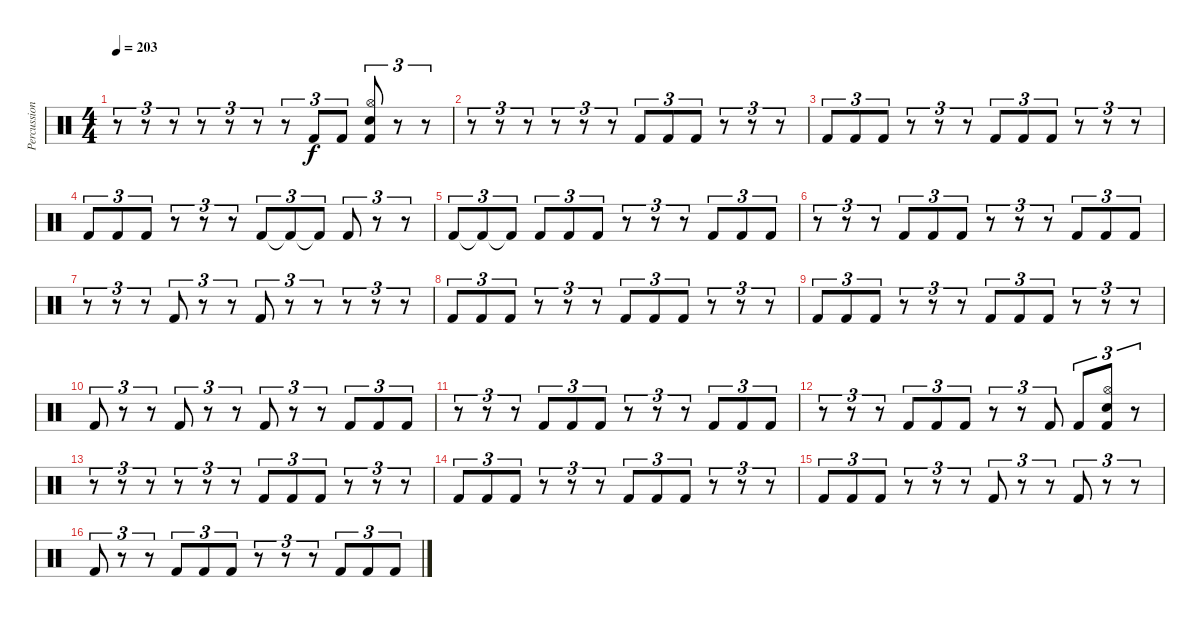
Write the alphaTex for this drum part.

\track ("Percussion" "Percussion") {instrument percussion}
\staff {score}
\articulation defaults
\ts (4 4)
\tempo 203
\clef neutral
\ks c
r.8{tu (3 2) dy f} r.8{tu (3 2)} r.8{tu (3 2)} r.8{tu (3 2)} r.8{tu (3 2)} r.8{tu (3 2)} r.8{tu (3 2)} "Kick (hit) 2".8{tu (3 2)} "Kick (hit) 2".8{tu (3 2)} ("Hi-Hat (open)" "Snare (hit) 2" "Kick (hit) 2").8{tu (3 2)} r.8{tu (3 2)} r.8{tu (3 2)} |
r.8{tu (3 2)} r.8{tu (3 2)} r.8{tu (3 2)} r.8{tu (3 2)} r.8{tu (3 2)} r.8{tu (3 2)} "Kick (hit) 2".8{tu (3 2)} "Kick (hit) 2".8{tu (3 2)} "Kick (hit) 2".8{tu (3 2)} r.8{tu (3 2)} r.8{tu (3 2)} r.8{tu (3 2)} |
"Kick (hit) 2".8{tu (3 2)} "Kick (hit) 2".8{tu (3 2)} "Kick (hit) 2".8{tu (3 2)} r.8{tu (3 2)} r.8{tu (3 2)} r.8{tu (3 2)} "Kick (hit) 2".8{tu (3 2)} "Kick (hit) 2".8{tu (3 2)} "Kick (hit) 2".8{tu (3 2)} r.8{tu (3 2)} r.8{tu (3 2)} r.8{tu (3 2)} |
"Kick (hit) 2".8{tu (3 2)} "Kick (hit) 2".8{tu (3 2)} "Kick (hit) 2".8{tu (3 2)} r.8{tu (3 2)} r.8{tu (3 2)} r.8{tu (3 2)} "Kick (hit) 2".8{tu (3 2)} "Kick (hit) 2"{t}.8{tu (3 2)} "Kick (hit) 2"{t}.8{tu (3 2)} "Kick (hit) 2".8{tu (3 2)} r.8{tu (3 2)} r.8{tu (3 2)} |
"Kick (hit) 2".8{tu (3 2)} "Kick (hit) 2"{t}.8{tu (3 2)} "Kick (hit) 2"{t}.8{tu (3 2)} "Kick (hit) 2".8{tu (3 2)} "Kick (hit) 2".8{tu (3 2)} "Kick (hit) 2".8{tu (3 2)} r.8{tu (3 2)} r.8{tu (3 2)} r.8{tu (3 2)} "Kick (hit) 2".8{tu (3 2)} "Kick (hit) 2".8{tu (3 2)} "Kick (hit) 2".8{tu (3 2)} |
r.8{tu (3 2)} r.8{tu (3 2)} r.8{tu (3 2)} "Kick (hit) 2".8{tu (3 2)} "Kick (hit) 2".8{tu (3 2)} "Kick (hit) 2".8{tu (3 2)} r.8{tu (3 2)} r.8{tu (3 2)} r.8{tu (3 2)} "Kick (hit) 2".8{tu (3 2)} "Kick (hit) 2".8{tu (3 2)} "Kick (hit) 2".8{tu (3 2)} |
r.8{tu (3 2)} r.8{tu (3 2)} r.8{tu (3 2)} "Kick (hit) 2".8{tu (3 2)} r.8{tu (3 2)} r.8{tu (3 2)} "Kick (hit) 2".8{tu (3 2)} r.8{tu (3 2)} r.8{tu (3 2)} r.8{tu (3 2)} r.8{tu (3 2)} r.8{tu (3 2)} |
"Kick (hit) 2".8{tu (3 2)} "Kick (hit) 2".8{tu (3 2)} "Kick (hit) 2".8{tu (3 2)} r.8{tu (3 2)} r.8{tu (3 2)} r.8{tu (3 2)} "Kick (hit) 2".8{tu (3 2)} "Kick (hit) 2".8{tu (3 2)} "Kick (hit) 2".8{tu (3 2)} r.8{tu (3 2)} r.8{tu (3 2)} r.8{tu (3 2)} |
"Kick (hit) 2".8{tu (3 2)} "Kick (hit) 2".8{tu (3 2)} "Kick (hit) 2".8{tu (3 2)} r.8{tu (3 2)} r.8{tu (3 2)} r.8{tu (3 2)} "Kick (hit) 2".8{tu (3 2)} "Kick (hit) 2".8{tu (3 2)} "Kick (hit) 2".8{tu (3 2)} r.8{tu (3 2)} r.8{tu (3 2)} r.8{tu (3 2)} |
"Kick (hit) 2".8{tu (3 2)} r.8{tu (3 2)} r.8{tu (3 2)} "Kick (hit) 2".8{tu (3 2)} r.8{tu (3 2)} r.8{tu (3 2)} "Kick (hit) 2".8{tu (3 2)} r.8{tu (3 2)} r.8{tu (3 2)} "Kick (hit) 2".8{tu (3 2)} "Kick (hit) 2".8{tu (3 2)} "Kick (hit) 2".8{tu (3 2)} |
r.8{tu (3 2)} r.8{tu (3 2)} r.8{tu (3 2)} "Kick (hit) 2".8{tu (3 2)} "Kick (hit) 2".8{tu (3 2)} "Kick (hit) 2".8{tu (3 2)} r.8{tu (3 2)} r.8{tu (3 2)} r.8{tu (3 2)} "Kick (hit) 2".8{tu (3 2)} "Kick (hit) 2".8{tu (3 2)} "Kick (hit) 2".8{tu (3 2)} |
r.8{tu (3 2)} r.8{tu (3 2)} r.8{tu (3 2)} "Kick (hit) 2".8{tu (3 2)} "Kick (hit) 2".8{tu (3 2)} "Kick (hit) 2".8{tu (3 2)} r.8{tu (3 2)} r.8{tu (3 2)} "Kick (hit) 2".8{tu (3 2)} "Kick (hit) 2".8{tu (3 2)} ("Hi-Hat (open)" "Snare (hit) 2" "Kick (hit) 2").8{tu (3 2)} r.8{tu (3 2)} |
r.8{tu (3 2)} r.8{tu (3 2)} r.8{tu (3 2)} r.8{tu (3 2)} r.8{tu (3 2)} r.8{tu (3 2)} "Kick (hit) 2".8{tu (3 2)} "Kick (hit) 2".8{tu (3 2)} "Kick (hit) 2".8{tu (3 2)} r.8{tu (3 2)} r.8{tu (3 2)} r.8{tu (3 2)} |
"Kick (hit) 2".8{tu (3 2)} "Kick (hit) 2".8{tu (3 2)} "Kick (hit) 2".8{tu (3 2)} r.8{tu (3 2)} r.8{tu (3 2)} r.8{tu (3 2)} "Kick (hit) 2".8{tu (3 2)} "Kick (hit) 2".8{tu (3 2)} "Kick (hit) 2".8{tu (3 2)} r.8{tu (3 2)} r.8{tu (3 2)} r.8{tu (3 2)} |
"Kick (hit) 2".8{tu (3 2)} "Kick (hit) 2".8{tu (3 2)} "Kick (hit) 2".8{tu (3 2)} r.8{tu (3 2)} r.8{tu (3 2)} r.8{tu (3 2)} "Kick (hit) 2".8{tu (3 2)} r.8{tu (3 2)} r.8{tu (3 2)} "Kick (hit) 2".8{tu (3 2)} r.8{tu (3 2)} r.8{tu (3 2)} |
"Kick (hit) 2".8{tu (3 2)} r.8{tu (3 2)} r.8{tu (3 2)} "Kick (hit) 2".8{tu (3 2)} "Kick (hit) 2".8{tu (3 2)} "Kick (hit) 2".8{tu (3 2)} r.8{tu (3 2)} r.8{tu (3 2)} r.8{tu (3 2)} "Kick (hit) 2".8{tu (3 2)} "Kick (hit) 2".8{tu (3 2)} "Kick (hit) 2".8{tu (3 2)}
